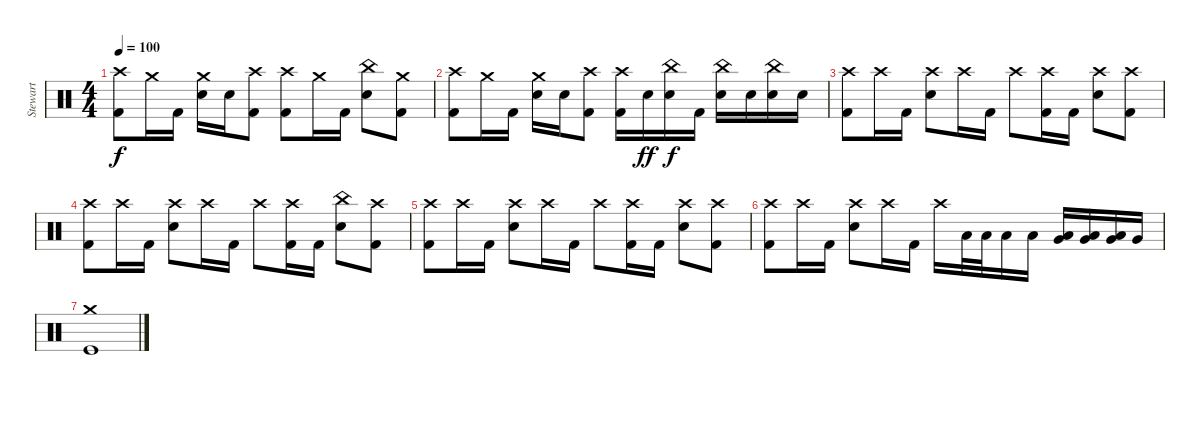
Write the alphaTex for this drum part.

\track ("Stewart" "Stewart") {instrument percussion}
\staff {score}
\articulation defaults
\ts (4 4)
\tempo 100
\clef neutral
\ks c
("Crash high (hit)" "Kick (hit) 2").8{dy f} "Crash medium (hit)".16 "Kick (hit) 2".16 ("Crash medium (hit)" "Electric Snare (hit)").16 "Electric Snare (hit)".16 ("Crash high (hit)" "Kick (hit) 2").8 ("Crash high (hit)" "Kick (hit) 2").8 "Crash medium (hit)".16 "Kick (hit) 2".16 ("China (hit)" "Electric Snare (hit)").8 ("Crash medium (hit)" "Kick (hit) 2").8 |
("Crash high (hit)" "Kick (hit) 2").8 "Crash medium (hit)".16 "Kick (hit) 2".16 ("Crash medium (hit)" "Electric Snare (hit)").16 "Electric Snare (hit)".16 ("Crash high (hit)" "Kick (hit) 2").8 ("Crash high (hit)" "Kick (hit) 2").16 "Electric Snare (hit)".16{dy ff} ("China (hit)" "Electric Snare (hit)").16{dy f} "Kick (hit) 2".16 ("China (hit)" "Electric Snare (hit)").16 "Electric Snare (hit)".16 ("China (hit)" "Electric Snare (hit)").16 "Electric Snare (hit)".16 |
("Crash high (hit)" "Kick (hit) 2").8 "Crash high (hit)".16 "Kick (hit) 2".16 ("Crash high (hit)" "Electric Snare (hit)").8 "Crash high (hit)".16 "Kick (hit) 2".16 "Crash high (hit)".8 ("Crash high (hit)" "Kick (hit) 2").16 "Kick (hit) 2".16 ("Crash high (hit)" "Electric Snare (hit)").8 ("Crash high (hit)" "Kick (hit) 2").8 |
("Crash high (hit)" "Kick (hit) 2").8 "Crash high (hit)".16 "Kick (hit) 2".16 ("Crash high (hit)" "Electric Snare (hit)").8 "Crash high (hit)".16 "Kick (hit) 2".16 "Crash high (hit)".8 ("Crash high (hit)" "Kick (hit) 2").16 "Kick (hit) 2".16 ("China (hit)" "Electric Snare (hit)").8 ("Crash high (hit)" "Kick (hit) 2").8 |
("Crash high (hit)" "Kick (hit) 2").8 "Crash high (hit)".16 "Kick (hit) 2".16 ("Crash high (hit)" "Electric Snare (hit)").8 "Crash high (hit)".16 "Kick (hit) 2".16 "Crash high (hit)".8 ("Crash high (hit)" "Kick (hit) 2").16 "Kick (hit) 2".16 ("Crash high (hit)" "Electric Snare (hit)").8 ("Crash high (hit)" "Kick (hit) 2").8 |
("Crash high (hit)" "Kick (hit) 2").8 "Crash high (hit)".16 "Kick (hit) 2".16 ("Crash high (hit)" "Electric Snare (hit)").8 "Crash high (hit)".16 "Kick (hit) 2".16 "Crash high (hit)".16 "Low Tom (hit)".32 "Low Tom (hit)".32 "Low Tom (hit)".16 "Low Tom (hit)".16 ("Low Tom (hit)" "Very Low Tom (hit)").16 ("Low Tom (hit)" "Very Low Tom (hit)").16 ("Low Tom (hit)" "Very Low Tom (hit)").16 "Very Low Tom (hit)".16 |
("Crash medium (hit)" "Kick (hit)").1
